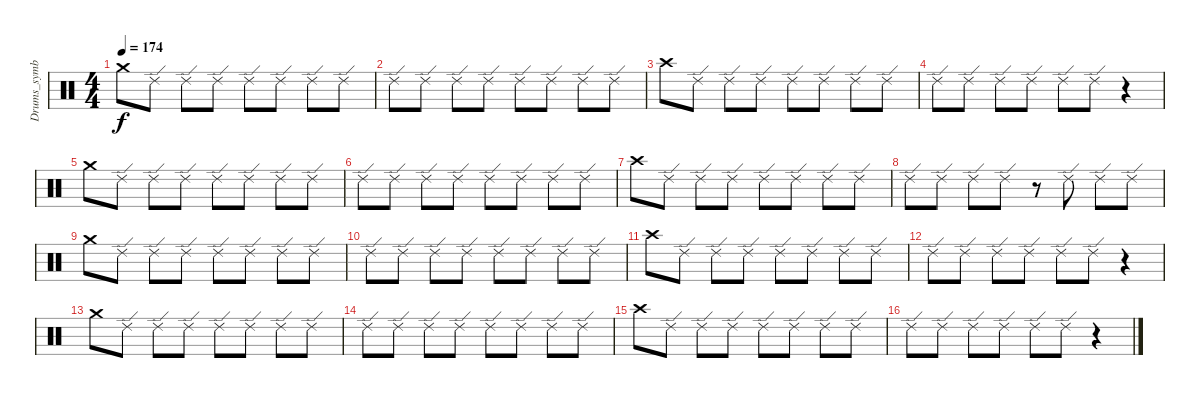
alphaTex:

\track ("Drums_symbal" "Drums_symb") {instrument percussion}
\staff {score}
\articulation defaults
\ts (4 4)
\tempo 174
\clef neutral
\ks c "Crash medium (hit)".8{dy f} "Ride (edge) 2".8 "Ride (edge) 2".8 "Ride (edge) 2".8 "Ride (edge) 2".8 "Ride (edge) 2".8 "Ride (edge) 2".8 "Ride (edge) 2".8
|
"Ride (edge) 2".8 "Ride (edge) 2".8 "Ride (edge) 2".8 "Ride (edge) 2".8 "Ride (edge) 2".8 "Ride (edge) 2".8 "Ride (edge) 2".8 "Ride (edge) 2".8 |
"Crash high (hit)".8 "Ride (edge) 2".8 "Ride (edge) 2".8 "Ride (edge) 2".8 "Ride (edge) 2".8 "Ride (edge) 2".8 "Ride (edge) 2".8 "Ride (edge) 2".8 |
"Ride (edge) 2".8 "Ride (edge) 2".8 "Ride (edge) 2".8 "Ride (edge) 2".8 "Ride (edge) 2".8 "Ride (edge) 2".8 r.4 |
"Crash medium (hit)".8 "Ride (edge) 2".8 "Ride (edge) 2".8 "Ride (edge) 2".8 "Ride (edge) 2".8 "Ride (edge) 2".8 "Ride (edge) 2".8 "Ride (edge) 2".8 |
"Ride (edge) 2".8 "Ride (edge) 2".8 "Ride (edge) 2".8 "Ride (edge) 2".8 "Ride (edge) 2".8 "Ride (edge) 2".8 "Ride (edge) 2".8 "Ride (edge) 2".8 |
"Crash high (hit)".8 "Ride (edge) 2".8 "Ride (edge) 2".8 "Ride (edge) 2".8 "Ride (edge) 2".8 "Ride (edge) 2".8 "Ride (edge) 2".8 "Ride (edge) 2".8 |
"Ride (edge) 2".8 "Ride (edge) 2".8 "Ride (edge) 2".8 "Ride (edge) 2".8 r.8 "Ride (edge) 2".8 "Ride (edge) 2".8 "Ride (edge) 2".8 |
"Crash medium (hit)".8 "Ride (edge) 2".8 "Ride (edge) 2".8 "Ride (edge) 2".8 "Ride (edge) 2".8 "Ride (edge) 2".8 "Ride (edge) 2".8 "Ride (edge) 2".8 |
"Ride (edge) 2".8 "Ride (edge) 2".8 "Ride (edge) 2".8 "Ride (edge) 2".8 "Ride (edge) 2".8 "Ride (edge) 2".8 "Ride (edge) 2".8 "Ride (edge) 2".8 |
"Crash high (hit)".8 "Ride (edge) 2".8 "Ride (edge) 2".8 "Ride (edge) 2".8 "Ride (edge) 2".8 "Ride (edge) 2".8 "Ride (edge) 2".8 "Ride (edge) 2".8 |
"Ride (edge) 2".8 "Ride (edge) 2".8 "Ride (edge) 2".8 "Ride (edge) 2".8 "Ride (edge) 2".8 "Ride (edge) 2".8 r.4 |
"Crash medium (hit)".8 "Ride (edge) 2".8 "Ride (edge) 2".8 "Ride (edge) 2".8 "Ride (edge) 2".8 "Ride (edge) 2".8 "Ride (edge) 2".8 "Ride (edge) 2".8 |
"Ride (edge) 2".8 "Ride (edge) 2".8 "Ride (edge) 2".8 "Ride (edge) 2".8 "Ride (edge) 2".8 "Ride (edge) 2".8 "Ride (edge) 2".8 "Ride (edge) 2".8 |
"Crash high (hit)".8 "Ride (edge) 2".8 "Ride (edge) 2".8 "Ride (edge) 2".8 "Ride (edge) 2".8 "Ride (edge) 2".8 "Ride (edge) 2".8 "Ride (edge) 2".8 |
"Ride (edge) 2".8 "Ride (edge) 2".8 "Ride (edge) 2".8 "Ride (edge) 2".8 "Ride (edge) 2".8 "Ride (edge) 2".8 r.4
